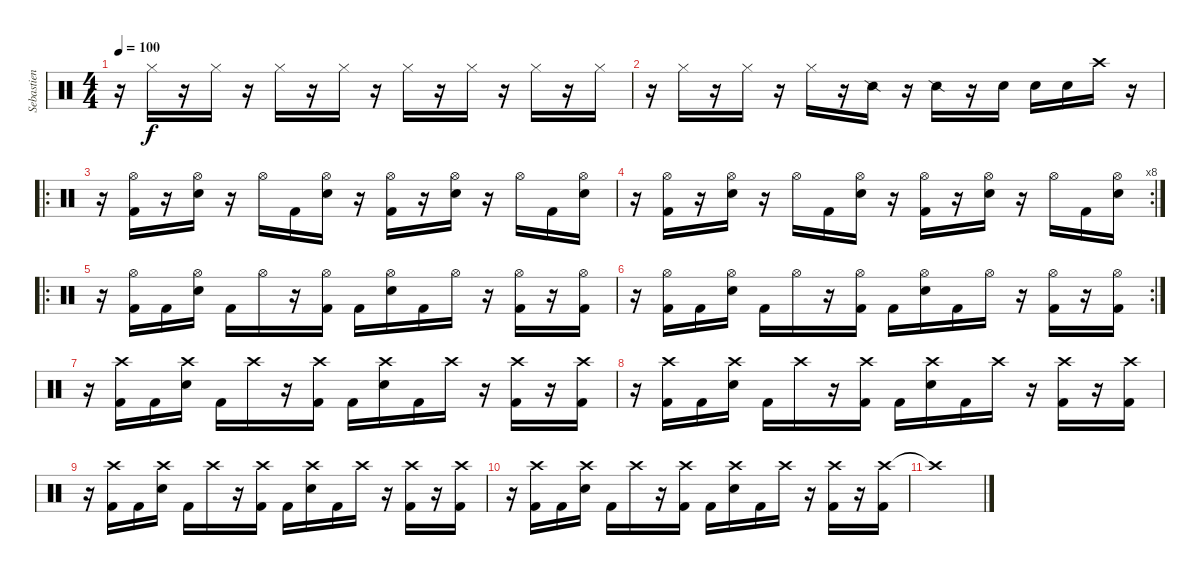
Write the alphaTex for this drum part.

\track ("Sebastien Grainger" "Sebastien ") {instrument percussion}
\staff {score}
\articulation defaults
\ts (4 4)
\tempo 100
\clef neutral
\ks c
r.16{dy f} "Hi-Hat (closed)".16 r.16 "Hi-Hat (closed)".16 r.16 "Hi-Hat (closed)".16 r.16 "Hi-Hat (closed)".16 r.16 "Hi-Hat (closed)".16 r.16 "Hi-Hat (closed)".16 r.16 "Hi-Hat (closed)".16 r.16 "Hi-Hat (closed)".16 |
r.16 "Hi-Hat (closed)".16 r.16 "Hi-Hat (closed)".16 r.16 "Hi-Hat (closed)".16 r.16 "Snare (side stick) 2".16 r.16 "Snare (side stick) 2".16 r.16 "Snare (hit) 2".16 "Snare (hit) 2".16 "Snare (hit) 2".16 "Crash high (hit)".16 r.16 |
\ro
r.16 ("Hi-Hat (open)" "Kick (hit) 2").16 r.16 ("Hi-Hat (open)" "Snare (hit) 2").16 r.16 "Hi-Hat (open)".16 "Kick (hit) 2".16 ("Hi-Hat (open)" "Snare (hit) 2").16 r.16 ("Hi-Hat (open)" "Kick (hit) 2").16 r.16 ("Hi-Hat (open)" "Snare (hit) 2").16 r.16 "Hi-Hat (open)".16 "Kick (hit) 2".16 ("Hi-Hat (open)" "Snare (hit) 2").16 |
\rc 8
r.16 ("Hi-Hat (open)" "Kick (hit) 2").16 r.16 ("Hi-Hat (open)" "Snare (hit) 2").16 r.16 "Hi-Hat (open)".16 "Kick (hit) 2".16 ("Hi-Hat (open)" "Snare (hit) 2").16 r.16 ("Hi-Hat (open)" "Kick (hit) 2").16 r.16 ("Hi-Hat (open)" "Snare (hit) 2").16 r.16 "Hi-Hat (open)".16 "Kick (hit) 2".16 ("Hi-Hat (open)" "Snare (hit) 2").16 |
\ro
r.16 ("Hi-Hat (open)" "Kick (hit) 2").16 "Kick (hit) 2".16 ("Hi-Hat (open)" "Snare (hit) 2").16 "Kick (hit) 2".16 "Hi-Hat (open)".16 r.16 ("Hi-Hat (open)" "Kick (hit) 2").16 "Kick (hit) 2".16 ("Hi-Hat (open)" "Snare (hit) 2").16 "Kick (hit) 2".16 "Hi-Hat (open)".16 r.16 ("Hi-Hat (open)" "Kick (hit) 2").16 r.16 ("Hi-Hat (open)" "Kick (hit) 2").16 |
\rc 2
r.16 ("Hi-Hat (open)" "Kick (hit) 2").16 "Kick (hit) 2".16 ("Hi-Hat (open)" "Snare (hit) 2").16 "Kick (hit) 2".16 "Hi-Hat (open)".16 r.16 ("Hi-Hat (open)" "Kick (hit) 2").16 "Kick (hit) 2".16 ("Hi-Hat (open)" "Snare (hit) 2").16 "Kick (hit) 2".16 "Hi-Hat (open)".16 r.16 ("Hi-Hat (open)" "Kick (hit) 2").16 r.16 ("Hi-Hat (open)" "Kick (hit) 2").16 |
r.16 ("Crash high (hit)" "Kick (hit) 2").16 "Kick (hit) 2".16 ("Crash high (hit)" "Snare (hit) 2").16 "Kick (hit) 2".16 "Crash high (hit)".16 r.16 ("Crash high (hit)" "Kick (hit) 2").16 "Kick (hit) 2".16 ("Crash high (hit)" "Snare (hit) 2").16 "Kick (hit) 2".16 "Crash high (hit)".16 r.16 ("Crash high (hit)" "Kick (hit) 2").16 r.16 ("Crash high (hit)" "Kick (hit) 2").16 |
r.16 ("Crash high (hit)" "Kick (hit) 2").16 "Kick (hit) 2".16 ("Crash high (hit)" "Snare (hit) 2").16 "Kick (hit) 2".16 "Crash high (hit)".16 r.16 ("Crash high (hit)" "Kick (hit) 2").16 "Kick (hit) 2".16 ("Crash high (hit)" "Snare (hit) 2").16 "Kick (hit) 2".16 "Crash high (hit)".16 r.16 ("Crash high (hit)" "Kick (hit) 2").16 r.16 ("Crash high (hit)" "Kick (hit) 2").16 |
r.16 ("Crash high (hit)" "Kick (hit) 2").16 "Kick (hit) 2".16 ("Crash high (hit)" "Snare (hit) 2").16 "Kick (hit) 2".16 "Crash high (hit)".16 r.16 ("Crash high (hit)" "Kick (hit) 2").16 "Kick (hit) 2".16 ("Crash high (hit)" "Snare (hit) 2").16 "Kick (hit) 2".16 "Crash high (hit)".16 r.16 ("Crash high (hit)" "Kick (hit) 2").16 r.16 ("Crash high (hit)" "Kick (hit) 2").16 |
r.16 ("Crash high (hit)" "Kick (hit) 2").16 "Kick (hit) 2".16 ("Crash high (hit)" "Snare (hit) 2").16 "Kick (hit) 2".16 "Crash high (hit)".16 r.16 ("Crash high (hit)" "Kick (hit) 2").16 "Kick (hit) 2".16 ("Crash high (hit)" "Snare (hit) 2").16 "Kick (hit) 2".16 "Crash high (hit)".16 r.16 ("Crash high (hit)" "Kick (hit) 2").16 r.16 ("Crash high (hit)" "Kick (hit) 2").16 |
"Crash high (hit)"{t}.1
